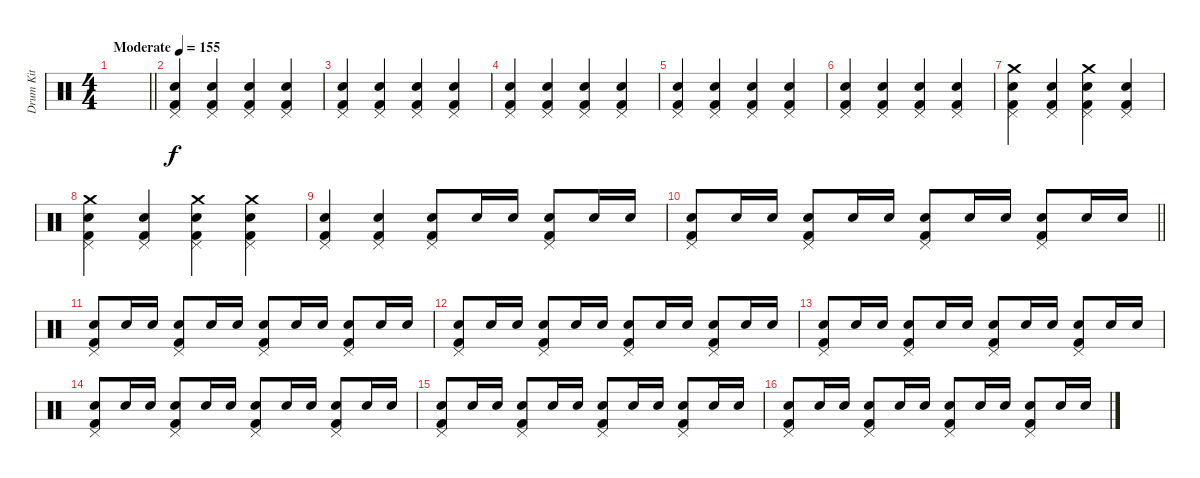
\track ("Drum Kit" "Drum Kit") {instrument percussion}
\staff {score}
\articulation defaults
\ts (4 4)
\tempo (155 "Moderate")
\clef neutral
\barLineRight lightlight
\ks c
|
("Pedal Hi-Hat (hit)" "Snare (hit) 2" "Kick (hit) 2").4{volume 7} ("Pedal Hi-Hat (hit)" "Snare (hit) 2" "Kick (hit) 2").4 ("Pedal Hi-Hat (hit)" "Snare (hit) 2" "Kick (hit) 2").4 ("Pedal Hi-Hat (hit)" "Snare (hit) 2" "Kick (hit) 2").4 |
("Pedal Hi-Hat (hit)" "Snare (hit) 2" "Kick (hit) 2").4 ("Pedal Hi-Hat (hit)" "Snare (hit) 2" "Kick (hit) 2").4 ("Pedal Hi-Hat (hit)" "Snare (hit) 2" "Kick (hit) 2").4 ("Pedal Hi-Hat (hit)" "Snare (hit) 2" "Kick (hit) 2").4 |
("Pedal Hi-Hat (hit)" "Snare (hit) 2" "Kick (hit) 2").4 ("Pedal Hi-Hat (hit)" "Snare (hit) 2" "Kick (hit) 2").4 ("Pedal Hi-Hat (hit)" "Snare (hit) 2" "Kick (hit) 2").4 ("Pedal Hi-Hat (hit)" "Snare (hit) 2" "Kick (hit) 2").4 |
("Pedal Hi-Hat (hit)" "Snare (hit) 2" "Kick (hit) 2").4 ("Pedal Hi-Hat (hit)" "Snare (hit) 2" "Kick (hit) 2").4 ("Pedal Hi-Hat (hit)" "Snare (hit) 2" "Kick (hit) 2").4 ("Pedal Hi-Hat (hit)" "Snare (hit) 2" "Kick (hit) 2").4 |
("Pedal Hi-Hat (hit)" "Snare (hit) 2" "Kick (hit) 2").4 ("Pedal Hi-Hat (hit)" "Snare (hit) 2" "Kick (hit) 2").4 ("Pedal Hi-Hat (hit)" "Snare (hit) 2" "Kick (hit) 2").4 ("Pedal Hi-Hat (hit)" "Snare (hit) 2" "Kick (hit) 2").4 |
("Crash medium (hit)" "Pedal Hi-Hat (hit)" "Snare (hit) 2" "Kick (hit) 2").4 ("Pedal Hi-Hat (hit)" "Snare (hit) 2" "Kick (hit) 2").4 ("Crash medium (hit)" "Pedal Hi-Hat (hit)" "Snare (hit) 2" "Kick (hit) 2").4 ("Pedal Hi-Hat (hit)" "Snare (hit) 2" "Kick (hit) 2").4 |
("Crash medium (hit)" "Pedal Hi-Hat (hit)" "Snare (hit) 2" "Kick (hit) 2").4 ("Pedal Hi-Hat (hit)" "Snare (hit) 2" "Kick (hit) 2").4 ("Crash medium (hit)" "Pedal Hi-Hat (hit)" "Snare (hit) 2" "Kick (hit) 2").4 ("Crash medium (hit)" "Pedal Hi-Hat (hit)" "Snare (hit) 2" "Kick (hit) 2").4 |
("Pedal Hi-Hat (hit)" "Snare (hit) 2" "Kick (hit) 2").4 ("Pedal Hi-Hat (hit)" "Snare (hit) 2" "Kick (hit) 2").4 ("Pedal Hi-Hat (hit)" "Snare (hit) 2" "Kick (hit) 2").8 "Snare (hit) 2".16 "Snare (hit) 2".16 ("Pedal Hi-Hat (hit)" "Snare (hit) 2" "Kick (hit) 2").8 "Snare (hit) 2".16 "Snare (hit) 2".16 |
\barLineRight lightlight
("Pedal Hi-Hat (hit)" "Snare (hit) 2" "Kick (hit) 2").8 "Snare (hit) 2".16 "Snare (hit) 2".16 ("Pedal Hi-Hat (hit)" "Snare (hit) 2" "Kick (hit) 2").8 "Snare (hit) 2".16 "Snare (hit) 2".16 ("Pedal Hi-Hat (hit)" "Snare (hit) 2" "Kick (hit) 2").8 "Snare (hit) 2".16 "Snare (hit) 2".16 ("Pedal Hi-Hat (hit)" "Snare (hit) 2" "Kick (hit) 2").8 "Snare (hit) 2".16 "Snare (hit) 2".16 |
("Pedal Hi-Hat (hit)" "Snare (hit) 2" "Kick (hit) 2").8 "Snare (hit) 2".16 "Snare (hit) 2".16 ("Pedal Hi-Hat (hit)" "Snare (hit) 2" "Kick (hit) 2").8 "Snare (hit) 2".16 "Snare (hit) 2".16 ("Pedal Hi-Hat (hit)" "Snare (hit) 2" "Kick (hit) 2").8 "Snare (hit) 2".16 "Snare (hit) 2".16 ("Pedal Hi-Hat (hit)" "Snare (hit) 2" "Kick (hit) 2").8 "Snare (hit) 2".16 "Snare (hit) 2".16 |
("Pedal Hi-Hat (hit)" "Snare (hit) 2" "Kick (hit) 2").8 "Snare (hit) 2".16 "Snare (hit) 2".16 ("Pedal Hi-Hat (hit)" "Snare (hit) 2" "Kick (hit) 2").8 "Snare (hit) 2".16 "Snare (hit) 2".16 ("Pedal Hi-Hat (hit)" "Snare (hit) 2" "Kick (hit) 2").8 "Snare (hit) 2".16 "Snare (hit) 2".16 ("Pedal Hi-Hat (hit)" "Snare (hit) 2" "Kick (hit) 2").8 "Snare (hit) 2".16 "Snare (hit) 2".16 |
("Pedal Hi-Hat (hit)" "Snare (hit) 2" "Kick (hit) 2").8 "Snare (hit) 2".16 "Snare (hit) 2".16 ("Pedal Hi-Hat (hit)" "Snare (hit) 2" "Kick (hit) 2").8 "Snare (hit) 2".16 "Snare (hit) 2".16 ("Pedal Hi-Hat (hit)" "Snare (hit) 2" "Kick (hit) 2").8 "Snare (hit) 2".16 "Snare (hit) 2".16 ("Pedal Hi-Hat (hit)" "Snare (hit) 2" "Kick (hit) 2").8 "Snare (hit) 2".16 "Snare (hit) 2".16 |
("Pedal Hi-Hat (hit)" "Snare (hit) 2" "Kick (hit) 2").8 "Snare (hit) 2".16 "Snare (hit) 2".16 ("Pedal Hi-Hat (hit)" "Snare (hit) 2" "Kick (hit) 2").8 "Snare (hit) 2".16 "Snare (hit) 2".16 ("Pedal Hi-Hat (hit)" "Snare (hit) 2" "Kick (hit) 2").8 "Snare (hit) 2".16 "Snare (hit) 2".16 ("Pedal Hi-Hat (hit)" "Snare (hit) 2" "Kick (hit) 2").8 "Snare (hit) 2".16 "Snare (hit) 2".16 |
("Pedal Hi-Hat (hit)" "Snare (hit) 2" "Kick (hit) 2").8 "Snare (hit) 2".16 "Snare (hit) 2".16 ("Pedal Hi-Hat (hit)" "Snare (hit) 2" "Kick (hit) 2").8 "Snare (hit) 2".16 "Snare (hit) 2".16 ("Pedal Hi-Hat (hit)" "Snare (hit) 2" "Kick (hit) 2").8 "Snare (hit) 2".16 "Snare (hit) 2".16 ("Pedal Hi-Hat (hit)" "Snare (hit) 2" "Kick (hit) 2").8 "Snare (hit) 2".16 "Snare (hit) 2".16 |
("Pedal Hi-Hat (hit)" "Snare (hit) 2" "Kick (hit) 2").8 "Snare (hit) 2".16 "Snare (hit) 2".16 ("Pedal Hi-Hat (hit)" "Snare (hit) 2" "Kick (hit) 2").8 "Snare (hit) 2".16 "Snare (hit) 2".16 ("Pedal Hi-Hat (hit)" "Snare (hit) 2" "Kick (hit) 2").8 "Snare (hit) 2".16 "Snare (hit) 2".16 ("Pedal Hi-Hat (hit)" "Snare (hit) 2" "Kick (hit) 2").8 "Snare (hit) 2".16 "Snare (hit) 2".16
